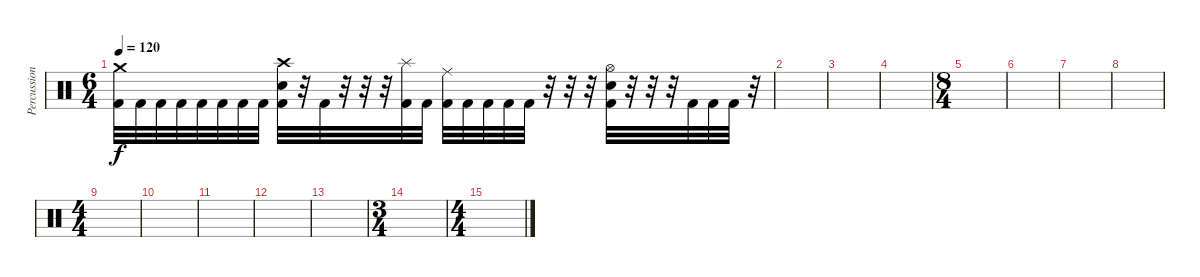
\track ("Percussion" "Percussion") {instrument percussion}
\staff {score}
\articulation defaults
\ts (6 4)
\tempo 120
\clef neutral
\ks c
("Crash medium (hit)" "Kick (hit) 2").32{dy f} "Kick (hit) 2".32 "Kick (hit) 2".32 "Kick (hit) 2".32 "Kick (hit) 2".32 "Kick (hit) 2".32 "Kick (hit) 2".32 "Kick (hit) 2".32 ("Crash high (hit)" "Electric Snare (hit)" "Kick (hit) 2").32 r.32 "Kick (hit) 2".32 r.32 r.32 r.32 ("Splash (hit)" "Kick (hit) 2").32 "Kick (hit) 2".32 ("Ride (middle)" "Kick (hit) 2").32 "Kick (hit) 2".32 "Kick (hit) 2".32 "Kick (hit) 2".32 "Kick (hit) 2".32 r.32 r.32 r.32 ("Hi-Hat (open)" "Electric Snare (hit)" "Kick (hit) 2").32 r.32 r.32 r.32 "Kick (hit) 2".32 "Kick (hit) 2".32 "Kick (hit) 2".32 r.32 |
|
|
|
\ts (8 4)
|
|
|
|
\ts (4 4)
|
|
|
|
|
\ts (3 4)
|
\ts (4 4)
